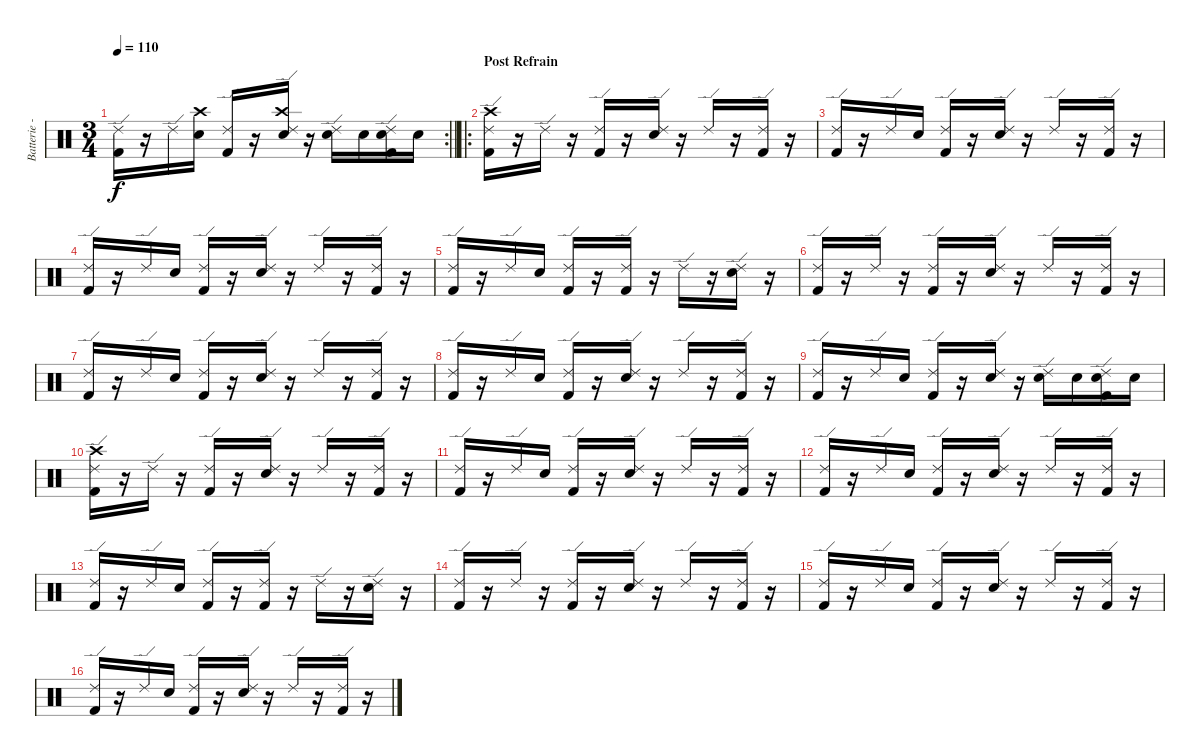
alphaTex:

\track ("Batterie - Toshiya" "Batterie -") {instrument percussion}
\staff {score}
\articulation defaults
\rc 2
\ts (3 4)
\tempo 110
\clef neutral
\barLineRight lightlight
\ks c
("Ride (edge) 2" "Kick (hit) 2").16{dy f} r.16 "Ride (edge) 2".16 ("Crash high (hit)" "Electric Snare (hit)").16 ("Ride (edge) 2" "Kick (hit) 2").16 r.16 ("Ride (edge) 2" "Crash high (hit)" "Electric Snare (hit)").16 r.16 ("Ride (edge) 2" "Electric Snare (hit)").16 "Electric Snare (hit)".16 ("Ride (edge) 2" "Electric Snare (hit)" "Kick (hit) 2").16 "Electric Snare (hit)".16 |
\ro
\section ("" "Post Refrain")
("Ride (edge) 2" "Crash high (hit)" "Kick (hit) 2").16 r.16 "Ride (edge) 2".16 r.16 ("Ride (edge) 2" "Kick (hit) 2").16 r.16 ("Ride (edge) 2" "Electric Snare (hit)").16 r.16 "Ride (edge) 2".16 r.16 ("Ride (edge) 2" "Kick (hit) 2").16 r.16 |
("Ride (edge) 2" "Kick (hit) 2").16 r.16 "Ride (edge) 2".16 "Electric Snare (hit)".16 ("Ride (edge) 2" "Kick (hit) 2").16 r.16 ("Ride (edge) 2" "Electric Snare (hit)").16 r.16 "Ride (edge) 2".16 r.16 ("Ride (edge) 2" "Kick (hit) 2").16 r.16 |
("Ride (edge) 2" "Kick (hit) 2").16 r.16 "Ride (edge) 2".16 "Electric Snare (hit)".16 ("Ride (edge) 2" "Kick (hit) 2").16 r.16 ("Ride (edge) 2" "Electric Snare (hit)").16 r.16 "Ride (edge) 2".16 r.16 ("Ride (edge) 2" "Kick (hit) 2").16 r.16 |
("Ride (edge) 2" "Kick (hit) 2").16 r.16 "Ride (edge) 2".16 "Electric Snare (hit)".16 ("Ride (edge) 2" "Kick (hit) 2").16 r.16 ("Ride (edge) 2" "Kick (hit) 2").16 r.16 "Ride (edge) 2".16 r.16 ("Ride (edge) 2" "Electric Snare (hit)").16 r.16 |
("Ride (edge) 2" "Kick (hit) 2").16 r.16 "Ride (edge) 2".16 r.16 ("Ride (edge) 2" "Kick (hit) 2").16 r.16 ("Ride (edge) 2" "Electric Snare (hit)").16 r.16 "Ride (edge) 2".16 r.16 ("Ride (edge) 2" "Kick (hit) 2").16 r.16 |
("Ride (edge) 2" "Kick (hit) 2").16 r.16 "Ride (edge) 2".16 "Electric Snare (hit)".16 ("Ride (edge) 2" "Kick (hit) 2").16 r.16 ("Ride (edge) 2" "Electric Snare (hit)").16 r.16 "Ride (edge) 2".16 r.16 ("Ride (edge) 2" "Kick (hit) 2").16 r.16 |
("Ride (edge) 2" "Kick (hit) 2").16 r.16 "Ride (edge) 2".16 "Electric Snare (hit)".16 ("Ride (edge) 2" "Kick (hit) 2").16 r.16 ("Ride (edge) 2" "Electric Snare (hit)").16 r.16 "Ride (edge) 2".16 r.16 ("Ride (edge) 2" "Kick (hit) 2").16 r.16 |
("Ride (edge) 2" "Kick (hit) 2").16 r.16 "Ride (edge) 2".16 "Electric Snare (hit)".16 ("Ride (edge) 2" "Kick (hit) 2").16 r.16 ("Ride (edge) 2" "Electric Snare (hit)").16 r.16 ("Ride (edge) 2" "Electric Snare (hit)").16 "Electric Snare (hit)".16 ("Ride (edge) 2" "Electric Snare (hit)" "Kick (hit) 2").16 "Electric Snare (hit)".16 |
("Ride (edge) 2" "Crash high (hit)" "Kick (hit) 2").16 r.16 "Ride (edge) 2".16 r.16 ("Ride (edge) 2" "Kick (hit) 2").16 r.16 ("Ride (edge) 2" "Electric Snare (hit)").16 r.16 "Ride (edge) 2".16 r.16 ("Ride (edge) 2" "Kick (hit) 2").16 r.16 |
("Ride (edge) 2" "Kick (hit) 2").16 r.16 "Ride (edge) 2".16 "Electric Snare (hit)".16 ("Ride (edge) 2" "Kick (hit) 2").16 r.16 ("Ride (edge) 2" "Electric Snare (hit)").16 r.16 "Ride (edge) 2".16 r.16 ("Ride (edge) 2" "Kick (hit) 2").16 r.16 |
("Ride (edge) 2" "Kick (hit) 2").16 r.16 "Ride (edge) 2".16 "Electric Snare (hit)".16 ("Ride (edge) 2" "Kick (hit) 2").16 r.16 ("Ride (edge) 2" "Electric Snare (hit)").16 r.16 "Ride (edge) 2".16 r.16 ("Ride (edge) 2" "Kick (hit) 2").16 r.16 |
("Ride (edge) 2" "Kick (hit) 2").16 r.16 "Ride (edge) 2".16 "Electric Snare (hit)".16 ("Ride (edge) 2" "Kick (hit) 2").16 r.16 ("Ride (edge) 2" "Kick (hit) 2").16 r.16 "Ride (edge) 2".16 r.16 ("Ride (edge) 2" "Electric Snare (hit)").16 r.16 |
("Ride (edge) 2" "Kick (hit) 2").16 r.16 "Ride (edge) 2".16 r.16 ("Ride (edge) 2" "Kick (hit) 2").16 r.16 ("Ride (edge) 2" "Electric Snare (hit)").16 r.16 "Ride (edge) 2".16 r.16 ("Ride (edge) 2" "Kick (hit) 2").16 r.16 |
("Ride (edge) 2" "Kick (hit) 2").16 r.16 "Ride (edge) 2".16 "Electric Snare (hit)".16 ("Ride (edge) 2" "Kick (hit) 2").16 r.16 ("Ride (edge) 2" "Electric Snare (hit)").16 r.16 "Ride (edge) 2".16 r.16 ("Ride (edge) 2" "Kick (hit) 2").16 r.16 |
("Ride (edge) 2" "Kick (hit) 2").16 r.16 "Ride (edge) 2".16 "Electric Snare (hit)".16 ("Ride (edge) 2" "Kick (hit) 2").16 r.16 ("Ride (edge) 2" "Electric Snare (hit)").16 r.16 "Ride (edge) 2".16 r.16 ("Ride (edge) 2" "Kick (hit) 2").16 r.16
